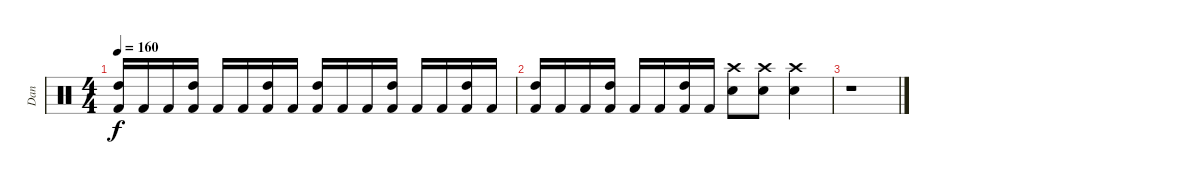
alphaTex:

\track ("Dan " "Dan ") {instrument percussion}
\staff {score}
\articulation defaults
\ts (4 4)
\tempo 160
\clef neutral
\ks c
("Kick (hit) 2" "High Tom (hit)").16{dy f} "Kick (hit) 2".16 "Kick (hit) 2".16 ("Kick (hit) 2" "High Tom (hit)").16 "Kick (hit) 2".16 "Kick (hit) 2".16 ("Kick (hit) 2" "High Tom (hit)").16 "Kick (hit) 2".16 ("Kick (hit) 2" "High Tom (hit)").16 "Kick (hit) 2".16 "Kick (hit) 2".16 ("Kick (hit) 2" "High Tom (hit)").16 "Kick (hit) 2".16 "Kick (hit) 2".16 ("Kick (hit) 2" "High Tom (hit)").16 "Kick (hit) 2".16 |
("Kick (hit) 2" "High Tom (hit)").16 "Kick (hit) 2".16 "Kick (hit) 2".16 ("Kick (hit) 2" "High Tom (hit)").16 "Kick (hit) 2".16 "Kick (hit) 2".16 ("Kick (hit) 2" "High Tom (hit)").16 "Kick (hit) 2".16 ("Metronome (bell)" "Crash high (hit)").8 ("Metronome (bell)" "Crash high (hit)").8 ("Metronome (bell)" "Crash high (hit)").4 |
r.1
